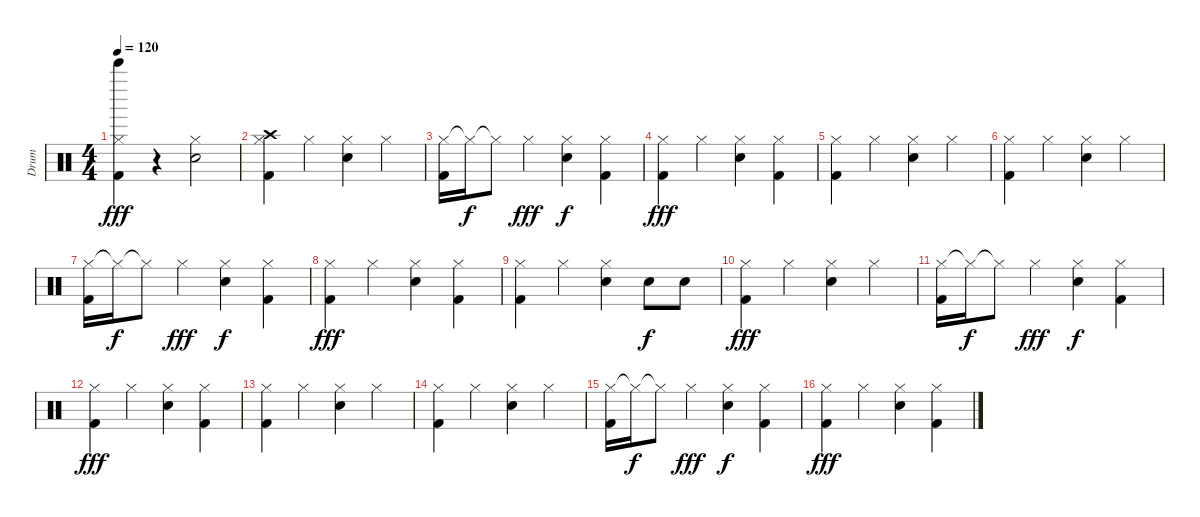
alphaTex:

\track ("Drum" "Drum") {instrument percussion}
\staff {score}
\articulation defaults
\ts (4 4)
\tempo 120
\clef neutral
\ks c
("Hi-Hat (closed)" "Kick (hit) 2" "Bell Tree (hit)").4{dy fff} r.4 ("Hi-Hat (closed)" "Electric Snare (hit)").2 |
("Crash high (hit)" "Hi-Hat (closed)" "Kick (hit) 2").4 "Hi-Hat (closed)".4 ("Hi-Hat (closed)" "Electric Snare (hit)").4 "Hi-Hat (closed)".4 |
("Hi-Hat (closed)" "Kick (hit) 2").16 "Hi-Hat (closed)"{t}.16{dy f} "Hi-Hat (closed)"{t}.8 "Hi-Hat (closed)".4{dy fff} ("Hi-Hat (closed)" "Electric Snare (hit)").4{dy f} ("Hi-Hat (closed)" "Kick (hit) 2").4 |
("Hi-Hat (closed)" "Kick (hit) 2").4{dy fff} "Hi-Hat (closed)".4 ("Hi-Hat (closed)" "Electric Snare (hit)").4 ("Hi-Hat (closed)" "Kick (hit) 2").4 |
("Hi-Hat (closed)" "Kick (hit) 2").4 "Hi-Hat (closed)".4 ("Hi-Hat (closed)" "Electric Snare (hit)").4 "Hi-Hat (closed)".4 |
("Hi-Hat (closed)" "Kick (hit) 2").4 "Hi-Hat (closed)".4 ("Hi-Hat (closed)" "Electric Snare (hit)").4 "Hi-Hat (closed)".4 |
("Hi-Hat (closed)" "Kick (hit) 2").16 "Hi-Hat (closed)"{t}.16{dy f} "Hi-Hat (closed)"{t}.8 "Hi-Hat (closed)".4{dy fff} ("Hi-Hat (closed)" "Electric Snare (hit)").4{dy f} ("Hi-Hat (closed)" "Kick (hit) 2").4 |
("Hi-Hat (closed)" "Kick (hit) 2").4{dy fff} "Hi-Hat (closed)".4 ("Hi-Hat (closed)" "Electric Snare (hit)").4 ("Hi-Hat (closed)" "Kick (hit) 2").4 |
("Hi-Hat (closed)" "Kick (hit) 2").4 "Hi-Hat (closed)".4 ("Hi-Hat (closed)" "Electric Snare (hit)").4 "Electric Snare (hit)".8{dy f} "Electric Snare (hit)".8 |
("Hi-Hat (closed)" "Kick (hit) 2").4{dy fff} "Hi-Hat (closed)".4 ("Hi-Hat (closed)" "Electric Snare (hit)").4 "Hi-Hat (closed)".4 |
("Hi-Hat (closed)" "Kick (hit) 2").16 "Hi-Hat (closed)"{t}.16{dy f} "Hi-Hat (closed)"{t}.8 "Hi-Hat (closed)".4{dy fff} ("Hi-Hat (closed)" "Electric Snare (hit)").4{dy f} ("Hi-Hat (closed)" "Kick (hit) 2").4 |
("Hi-Hat (closed)" "Kick (hit) 2").4{dy fff} "Hi-Hat (closed)".4 ("Hi-Hat (closed)" "Electric Snare (hit)").4 ("Hi-Hat (closed)" "Kick (hit) 2").4 |
("Hi-Hat (closed)" "Kick (hit) 2").4 "Hi-Hat (closed)".4 ("Hi-Hat (closed)" "Electric Snare (hit)").4 "Hi-Hat (closed)".4 |
("Hi-Hat (closed)" "Kick (hit) 2").4 "Hi-Hat (closed)".4 ("Hi-Hat (closed)" "Electric Snare (hit)").4 "Hi-Hat (closed)".4 |
("Hi-Hat (closed)" "Kick (hit) 2").16 "Hi-Hat (closed)"{t}.16{dy f} "Hi-Hat (closed)"{t}.8 "Hi-Hat (closed)".4{dy fff} ("Hi-Hat (closed)" "Electric Snare (hit)").4{dy f} ("Hi-Hat (closed)" "Kick (hit) 2").4 |
("Hi-Hat (closed)" "Kick (hit) 2").4{dy fff} "Hi-Hat (closed)".4 ("Hi-Hat (closed)" "Electric Snare (hit)").4 ("Hi-Hat (closed)" "Kick (hit) 2").4
